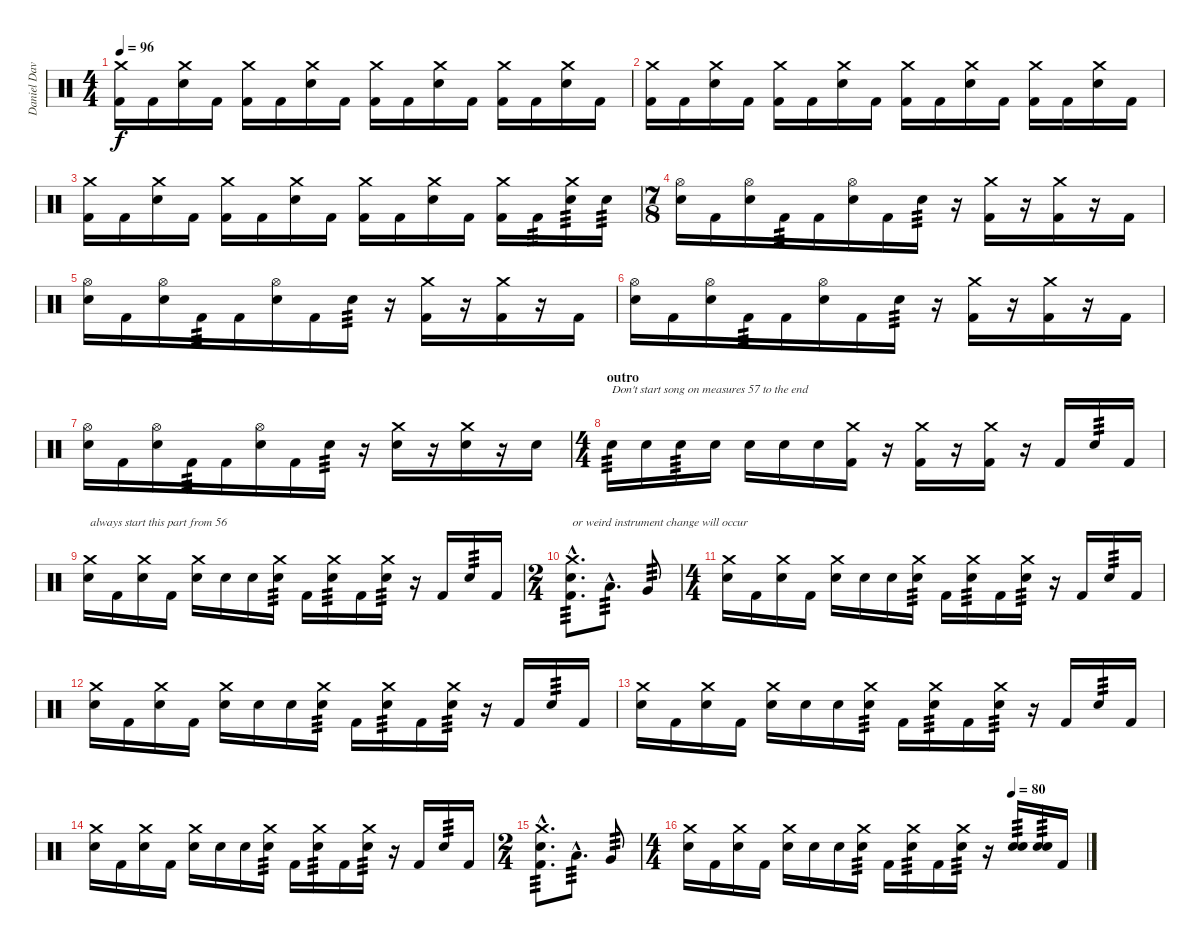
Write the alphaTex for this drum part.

\track ("Daniel Davison" "Daniel Dav") {instrument percussion}
\staff {score}
\articulation defaults
\ts (4 4)
\tempo 96
\clef neutral
\ks c
("Crash medium (hit)" "Kick (hit) 2").16{dy f} "Kick (hit) 2".16 ("Crash medium (hit)" "Electric Snare (hit)").16 "Kick (hit) 2".16 ("Crash medium (hit)" "Kick (hit) 2").16 "Kick (hit) 2".16 ("Crash medium (hit)" "Electric Snare (hit)").16 "Kick (hit) 2".16 ("Crash medium (hit)" "Kick (hit) 2").16 "Kick (hit) 2".16 ("Crash medium (hit)" "Electric Snare (hit)").16 "Kick (hit) 2".16 ("Crash medium (hit)" "Kick (hit) 2").16 "Kick (hit) 2".16 ("Crash medium (hit)" "Electric Snare (hit)").16 "Kick (hit) 2".16 |
("Crash medium (hit)" "Kick (hit) 2").16 "Kick (hit) 2".16 ("Crash medium (hit)" "Electric Snare (hit)").16 "Kick (hit) 2".16 ("Crash medium (hit)" "Kick (hit) 2").16 "Kick (hit) 2".16 ("Crash medium (hit)" "Electric Snare (hit)").16 "Kick (hit) 2".16 ("Crash medium (hit)" "Kick (hit) 2").16 "Kick (hit) 2".16 ("Crash medium (hit)" "Electric Snare (hit)").16 "Kick (hit) 2".16 ("Crash medium (hit)" "Kick (hit) 2").16 "Kick (hit) 2".16 ("Crash medium (hit)" "Electric Snare (hit)").16 "Kick (hit) 2".16 |
("Crash medium (hit)" "Kick (hit) 2").16 "Kick (hit) 2".16 ("Crash medium (hit)" "Electric Snare (hit)").16 "Kick (hit) 2".16 ("Crash medium (hit)" "Kick (hit) 2").16 "Kick (hit) 2".16 ("Crash medium (hit)" "Electric Snare (hit)").16 "Kick (hit) 2".16 ("Crash medium (hit)" "Kick (hit) 2").16 "Kick (hit) 2".16 ("Crash medium (hit)" "Electric Snare (hit)").16 "Kick (hit) 2".16 ("Crash medium (hit)" "Kick (hit) 2").16 "Kick (hit) 2".16{tp 3} ("Crash medium (hit)" "Electric Snare (hit)").16{tp 3} "Electric Snare (hit)".16{tp 3} |
\ts (7 8)
("Hi-Hat (open)" "Electric Snare (hit)").16 "Kick (hit) 2".16 ("Hi-Hat (open)" "Electric Snare (hit)").16 "Kick (hit) 2".16{tp 3} "Kick (hit) 2".16 ("Hi-Hat (open)" "Electric Snare (hit)").16 "Kick (hit) 2".16 "Electric Snare (hit)".16{tp 3} r.16 ("Crash medium (hit)" "Kick (hit) 2").16 r.16 ("Crash medium (hit)" "Kick (hit) 2").16 r.16 "Kick (hit) 2".16 |
("Hi-Hat (open)" "Electric Snare (hit)").16 "Kick (hit) 2".16 ("Hi-Hat (open)" "Electric Snare (hit)").16 "Kick (hit) 2".16{tp 3} "Kick (hit) 2".16 ("Hi-Hat (open)" "Electric Snare (hit)").16 "Kick (hit) 2".16 "Electric Snare (hit)".16{tp 3} r.16 ("Crash medium (hit)" "Kick (hit) 2").16 r.16 ("Crash medium (hit)" "Kick (hit) 2").16 r.16 "Kick (hit) 2".16 |
("Hi-Hat (open)" "Electric Snare (hit)").16 "Kick (hit) 2".16 ("Hi-Hat (open)" "Electric Snare (hit)").16 "Kick (hit) 2".16{tp 3} "Kick (hit) 2".16 ("Hi-Hat (open)" "Electric Snare (hit)").16 "Kick (hit) 2".16 "Electric Snare (hit)".16{tp 3} r.16 ("Crash medium (hit)" "Kick (hit) 2").16 r.16 ("Crash medium (hit)" "Kick (hit) 2").16 r.16 "Kick (hit) 2".16 |
("Hi-Hat (open)" "Electric Snare (hit)").16 "Kick (hit) 2".16 ("Hi-Hat (open)" "Electric Snare (hit)").16 "Kick (hit) 2".16{tp 3} "Kick (hit) 2".16 ("Hi-Hat (open)" "Electric Snare (hit)").16 "Kick (hit) 2".16 "Electric Snare (hit)".16{tp 3} r.16 ("Crash medium (hit)" "Electric Snare (hit)").16 r.16 ("Crash medium (hit)" "Electric Snare (hit)").16 r.16 "Electric Snare (hit)".16 |
\ts (4 4)
\section ("" "outro")
"Electric Snare (hit)".16{txt "Don't start song on measures 57 to the end" tp 3} "Electric Snare (hit)".16 "Electric Snare (hit)".16{tp 3} "Electric Snare (hit)".16 "Electric Snare (hit)".16 "Electric Snare (hit)".16 "Electric Snare (hit)".16 ("Crash medium (hit)" "Kick (hit) 2").16 r.16 ("Crash medium (hit)" "Kick (hit) 2").16 r.16 ("Crash medium (hit)" "Kick (hit) 2").16 r.16 "Kick (hit) 2".16 "Electric Snare (hit)".16{tp 3} "Kick (hit) 2".16 |
("Crash medium (hit)" "Electric Snare (hit)").16{txt "always start this part from 56"} "Kick (hit) 2".16 ("Crash medium (hit)" "Electric Snare (hit)").16 "Kick (hit) 2".16 ("Crash medium (hit)" "Electric Snare (hit)").16 "Electric Snare (hit)".16 "Electric Snare (hit)".16 ("Crash medium (hit)" "Electric Snare (hit)").16{tp 3} "Kick (hit) 2".16 ("Crash medium (hit)" "Electric Snare (hit)").16{tp 3} "Kick (hit) 2".16 ("Crash medium (hit)" "Electric Snare (hit)").16{tp 3} r.16 "Kick (hit) 2".16 "Electric Snare (hit)".16{tp 3} "Kick (hit) 2".16 |
\ts (2 4)
("Crash medium (hit)"{hac} "Electric Snare (hit)"{hac} "Kick (hit) 2"{hac}).8{d txt "or weird instrument change will occur" tp 3} "Low Tom (hit)"{hac}.8{d tp 3} "Very Low Tom (hit)".8{tp 3} |
\ts (4 4)
("Crash medium (hit)" "Electric Snare (hit)").16 "Kick (hit) 2".16 ("Crash medium (hit)" "Electric Snare (hit)").16 "Kick (hit) 2".16 ("Crash medium (hit)" "Electric Snare (hit)").16 "Electric Snare (hit)".16 "Electric Snare (hit)".16 ("Crash medium (hit)" "Electric Snare (hit)").16{tp 3} "Kick (hit) 2".16 ("Crash medium (hit)" "Electric Snare (hit)").16{tp 3} "Kick (hit) 2".16 ("Crash medium (hit)" "Electric Snare (hit)").16{tp 3} r.16 "Kick (hit) 2".16 "Electric Snare (hit)".16{tp 3} "Kick (hit) 2".16 |
("Crash medium (hit)" "Electric Snare (hit)").16 "Kick (hit) 2".16 ("Crash medium (hit)" "Electric Snare (hit)").16 "Kick (hit) 2".16 ("Crash medium (hit)" "Electric Snare (hit)").16 "Electric Snare (hit)".16 "Electric Snare (hit)".16 ("Crash medium (hit)" "Electric Snare (hit)").16{tp 3} "Kick (hit) 2".16 ("Crash medium (hit)" "Electric Snare (hit)").16{tp 3} "Kick (hit) 2".16 ("Crash medium (hit)" "Electric Snare (hit)").16{tp 3} r.16 "Kick (hit) 2".16 "Electric Snare (hit)".16{tp 3} "Kick (hit) 2".16 |
("Crash medium (hit)" "Electric Snare (hit)").16 "Kick (hit) 2".16 ("Crash medium (hit)" "Electric Snare (hit)").16 "Kick (hit) 2".16 ("Crash medium (hit)" "Electric Snare (hit)").16 "Electric Snare (hit)".16 "Electric Snare (hit)".16 ("Crash medium (hit)" "Electric Snare (hit)").16{tp 3} "Kick (hit) 2".16 ("Crash medium (hit)" "Electric Snare (hit)").16{tp 3} "Kick (hit) 2".16 ("Crash medium (hit)" "Electric Snare (hit)").16{tp 3} r.16 "Kick (hit) 2".16 "Electric Snare (hit)".16{tp 3} "Kick (hit) 2".16 |
("Crash medium (hit)" "Electric Snare (hit)").16 "Kick (hit) 2".16 ("Crash medium (hit)" "Electric Snare (hit)").16 "Kick (hit) 2".16 ("Crash medium (hit)" "Electric Snare (hit)").16 "Electric Snare (hit)".16 "Electric Snare (hit)".16 ("Crash medium (hit)" "Electric Snare (hit)").16{tp 3} "Kick (hit) 2".16 ("Crash medium (hit)" "Electric Snare (hit)").16{tp 3} "Kick (hit) 2".16 ("Crash medium (hit)" "Electric Snare (hit)").16{tp 3} r.16 "Kick (hit) 2".16 "Electric Snare (hit)".16{tp 3} "Kick (hit) 2".16 |
\ts (2 4)
("Crash medium (hit)"{hac} "Electric Snare (hit)"{hac} "Kick (hit) 2"{hac}).8{d tp 3} "Low Tom (hit)"{hac}.8{d tp 3} "Very Low Tom (hit)".8{tp 3} |
\ts (4 4)
\tempo (80 0.8125)
("Crash medium (hit)" "Electric Snare (hit)").16 "Kick (hit) 2".16 ("Crash medium (hit)" "Electric Snare (hit)").16 "Kick (hit) 2".16 ("Crash medium (hit)" "Electric Snare (hit)").16 "Electric Snare (hit)".16 "Electric Snare (hit)".16 ("Crash medium (hit)" "Electric Snare (hit)").16{tp 3} "Kick (hit) 2".16 ("Crash medium (hit)" "Electric Snare (hit)").16{tp 3} "Kick (hit) 2".16 ("Crash medium (hit)" "Electric Snare (hit)").16{tp 3} r.16 ("Electric Snare (hit)" "Electric Snare (hit)").16{tp 3} ("Electric Snare (hit)" "Electric Snare (hit)").16{tp 3} "Kick (hit) 2".16
